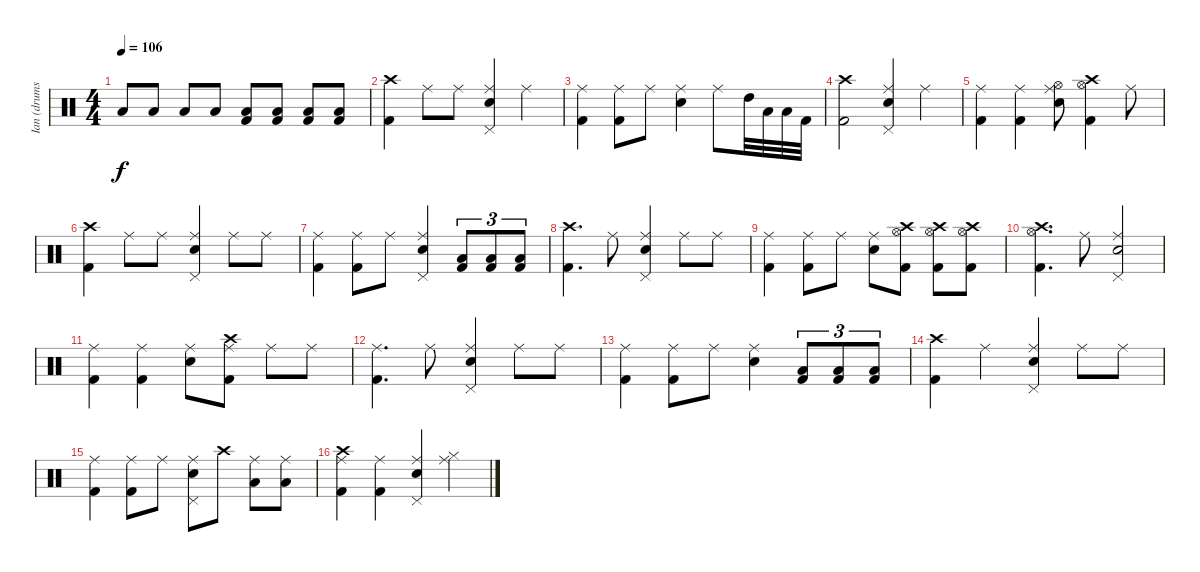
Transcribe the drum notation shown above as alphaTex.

\track ("Ian (drums)" "Ian (drums") {instrument percussion}
\staff {score}
\articulation defaults
\ts (4 4)
\tempo 106
\clef neutral
\ks c "Low Tom (hit)".8{dy f} "Low Tom (hit)".8 "Low Floor Tom (hit)".8 "Low Tom (hit)".8
("Kick (hit) 2" "Low Floor Tom (hit)").8 ("Kick (hit) 2" "Low Floor Tom (hit)").8 ("Kick (hit) 2" "Low Floor Tom (hit)").8 ("Kick (hit) 2" "Low Floor Tom (hit)").8 |
("Kick (hit) 2" "Crash high (hit)").4 "Ride (middle)".8 "Ride (middle)".8 ("Snare (hit) 2" "Pedal Hi-Hat (hit)" "Ride (middle)").4 "Ride (middle)".4 |
("Kick (hit) 2" "Ride (middle)").4 ("Kick (hit) 2" "Ride (middle)").8 "Ride (middle)".8 ("Snare (hit) 2" "Ride (middle)").4 "Ride (middle)".8 "High Tom (hit)".32 "Low Tom (hit)".32 "Low Floor Tom (hit)".32 "Kick (hit) 2".32 |
("Kick (hit) 2" "Crash high (hit)").2 ("Pedal Hi-Hat (hit)" "Snare (hit) 2" "Ride (middle)").4 "Ride (middle)".4 |
("Kick (hit) 2" "Ride (middle)").4 ("Kick (hit) 2" "Ride (middle)").4 ("Snare (hit) 2" "Hi-Hat (open)" "Ride (middle)").8 ("Kick (hit) 2" "Hi-Hat (open)" "Crash high (hit)").4 "Ride (middle)".8 |
("Kick (hit) 2" "Crash high (hit)").4 "Ride (middle)".8 "Ride (middle)".8 ("Snare (hit) 2" "Pedal Hi-Hat (hit)" "Ride (middle)").4 "Ride (middle)".8 "Ride (middle)".8 |
("Kick (hit) 2" "Ride (middle)").4 ("Kick (hit) 2" "Ride (middle)").8 "Ride (middle)".8 ("Snare (hit) 2" "Pedal Hi-Hat (hit)" "Ride (middle)").4 ("Kick (hit) 2" "Low Floor Tom (hit)").8{tu (3 2)} ("Kick (hit) 2" "Low Tom (hit)").8{tu (3 2)} ("Kick (hit) 2" "Low Floor Tom (hit)").8{tu (3 2)} |
("Kick (hit) 2" "Crash high (hit)").4{d} "Ride (middle)".8 ("Snare (hit) 2" "Pedal Hi-Hat (hit)" "Ride (middle)").4 "Ride (middle)".8 "Ride (middle)".8 |
("Kick (hit) 2" "Ride (middle)").4 ("Kick (hit) 2" "Ride (middle)").8 "Ride (middle)".8 ("Snare (hit) 2" "Ride (middle)").8 ("Kick (hit) 2" "Hi-Hat (open)" "Crash high (hit)").8 ("Kick (hit) 2" "Hi-Hat (open)" "Crash high (hit)").8 ("Hi-Hat (open)" "Kick (hit) 2" "Crash high (hit)").8 |
("Hi-Hat (open)" "Kick (hit) 2" "Crash high (hit)").4{d} "Ride (middle)".8 ("Snare (hit) 2" "Pedal Hi-Hat (hit)" "Ride (middle)").2 |
("Kick (hit) 2" "Ride (middle)").4 ("Kick (hit) 2" "Ride (middle)").4 ("Snare (hit) 2" "Ride (middle)").8 ("Kick (hit) 2" "Crash high (hit)" "Ride (middle)").8 "Ride (middle)".8 "Ride (middle)".8 |
("Kick (hit) 2" "Ride (middle)").4{d} "Ride (middle)".8 ("Snare (hit) 2" "Pedal Hi-Hat (hit)" "Ride (middle)").4 "Ride (middle)".8 "Ride (middle)".8 |
("Kick (hit) 2" "Ride (middle)").4 ("Kick (hit) 2" "Ride (middle)").8 "Ride (middle)".8 ("Snare (hit) 2" "Ride (middle)").4 ("Kick (hit) 2" "Low Floor Tom (hit)").8{tu (3 2)} ("Kick (hit) 2" "Low Tom (hit)").8{tu (3 2)} ("Kick (hit) 2" "Low Floor Tom (hit)").8{tu (3 2)} |
("Kick (hit) 2" "Crash high (hit)").4 "Ride (middle)".4 ("Snare (hit) 2" "Pedal Hi-Hat (hit)" "Ride (middle)").4 "Ride (middle)".8 "Ride (middle)".8 |
("Kick (hit) 2" "Ride (middle)").4 ("Kick (hit) 2" "Ride (middle)").8 "Ride (middle)".8 ("Snare (hit) 2" "Pedal Hi-Hat (hit)" "Ride (middle)").8 "Crash high (hit)".8 ("Low Tom (hit)" "Ride (middle)").8 ("Low Floor Tom (hit)" "Ride (middle)").8 |
("Kick (hit) 2" "Crash high (hit)" "Ride (middle)").4 ("Kick (hit) 2" "Ride (middle)").4 ("Snare (hit) 2" "Pedal Hi-Hat (hit)" "Ride (middle)").4 ("Hi-Hat (closed)" "Ride (middle)").4
